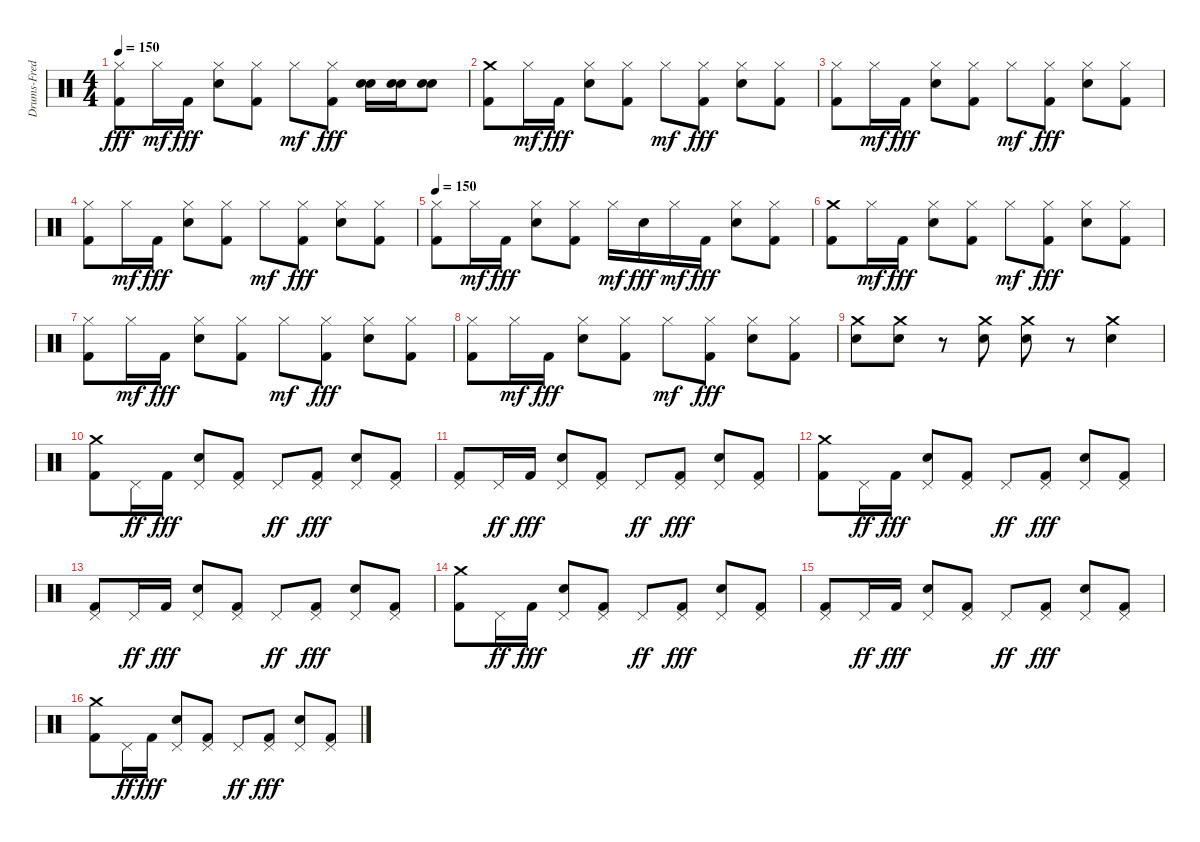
\track ("Drums-Fred" "Drums-Fred") {instrument percussion}
\staff {score}
\articulation defaults
\ts (4 4)
\tempo 150
\clef neutral
\ks c
("Hi-Hat (closed)" "Kick (hit) 2").8{dy fff} "Hi-Hat (closed)".16{dy mf} "Kick (hit) 2".16{dy fff} ("Hi-Hat (closed)" "Snare (hit) 2").8 ("Hi-Hat (closed)" "Kick (hit) 2").8 "Hi-Hat (closed)".8{dy mf} ("Hi-Hat (closed)" "Kick (hit) 2").8{dy fff} ("Snare (hit) 2" "Snare (hit) 2").16 ("Snare (hit) 2" "Snare (hit) 2").16 ("Snare (hit) 2" "Snare (hit) 2").8 |
("Crash medium (hit)" "Kick (hit) 2").8 "Hi-Hat (closed)".16{dy mf} "Kick (hit) 2".16{dy fff} ("Hi-Hat (closed)" "Snare (hit) 2").8 ("Hi-Hat (closed)" "Kick (hit) 2").8 "Hi-Hat (closed)".8{dy mf} ("Hi-Hat (closed)" "Kick (hit) 2").8{dy fff} ("Hi-Hat (closed)" "Snare (hit) 2").8 ("Hi-Hat (closed)" "Kick (hit) 2").8 |
("Hi-Hat (closed)" "Kick (hit) 2").8 "Hi-Hat (closed)".16{dy mf} "Kick (hit) 2".16{dy fff} ("Hi-Hat (closed)" "Snare (hit) 2").8 ("Hi-Hat (closed)" "Kick (hit) 2").8 "Hi-Hat (closed)".8{dy mf} ("Hi-Hat (closed)" "Kick (hit) 2").8{dy fff} ("Hi-Hat (closed)" "Snare (hit) 2").8 ("Hi-Hat (closed)" "Kick (hit) 2").8 |
("Hi-Hat (closed)" "Kick (hit) 2").8 "Hi-Hat (closed)".16{dy mf} "Kick (hit) 2".16{dy fff} ("Hi-Hat (closed)" "Snare (hit) 2").8 ("Hi-Hat (closed)" "Kick (hit) 2").8 "Hi-Hat (closed)".8{dy mf} ("Hi-Hat (closed)" "Kick (hit) 2").8{dy fff} ("Hi-Hat (closed)" "Snare (hit) 2").8 ("Hi-Hat (closed)" "Kick (hit) 2").8 |
\tempo 150
("Hi-Hat (closed)" "Kick (hit) 2").8 "Hi-Hat (closed)".16{dy mf} "Kick (hit) 2".16{dy fff} ("Hi-Hat (closed)" "Snare (hit) 2").8 ("Hi-Hat (closed)" "Kick (hit) 2").8 "Hi-Hat (closed)".16{dy mf} "Snare (hit) 2".16{dy fff} "Hi-Hat (closed)".16{dy mf} "Kick (hit) 2".16{dy fff} ("Hi-Hat (closed)" "Snare (hit) 2").8 ("Hi-Hat (closed)" "Kick (hit) 2").8 |
("Crash medium (hit)" "Kick (hit) 2").8 "Hi-Hat (closed)".16{dy mf} "Kick (hit) 2".16{dy fff} ("Hi-Hat (closed)" "Snare (hit) 2").8 ("Hi-Hat (closed)" "Kick (hit) 2").8 "Hi-Hat (closed)".8{dy mf} ("Hi-Hat (closed)" "Kick (hit) 2").8{dy fff} ("Hi-Hat (closed)" "Snare (hit) 2").8 ("Hi-Hat (closed)" "Kick (hit) 2").8 |
("Hi-Hat (closed)" "Kick (hit) 2").8 "Hi-Hat (closed)".16{dy mf} "Kick (hit) 2".16{dy fff} ("Hi-Hat (closed)" "Snare (hit) 2").8 ("Hi-Hat (closed)" "Kick (hit) 2").8 "Hi-Hat (closed)".8{dy mf} ("Hi-Hat (closed)" "Kick (hit) 2").8{dy fff} ("Hi-Hat (closed)" "Snare (hit) 2").8 ("Hi-Hat (closed)" "Kick (hit) 2").8 |
("Hi-Hat (closed)" "Kick (hit) 2").8 "Hi-Hat (closed)".16{dy mf} "Kick (hit) 2".16{dy fff} ("Hi-Hat (closed)" "Snare (hit) 2").8 ("Hi-Hat (closed)" "Kick (hit) 2").8 "Hi-Hat (closed)".8{dy mf} ("Hi-Hat (closed)" "Kick (hit) 2").8{dy fff} ("Hi-Hat (closed)" "Snare (hit) 2").8 ("Hi-Hat (closed)" "Kick (hit) 2").8 |
("Crash medium (hit)" "Snare (hit) 2").8 ("Crash medium (hit)" "Snare (hit) 2").8 r.8 ("Crash medium (hit)" "Snare (hit) 2").8 ("Crash medium (hit)" "Snare (hit) 2").8 r.8 ("Crash medium (hit)" "Snare (hit) 2").4 |
("Crash medium (hit)" "Kick (hit) 2").8 "Pedal Hi-Hat (hit)".16{dy ff} "Kick (hit) 2".16{dy fff} ("Pedal Hi-Hat (hit)" "Snare (hit) 2").8 ("Pedal Hi-Hat (hit)" "Kick (hit) 2").8 "Pedal Hi-Hat (hit)".8{dy ff} ("Pedal Hi-Hat (hit)" "Kick (hit) 2").8{dy fff} ("Pedal Hi-Hat (hit)" "Snare (hit) 2").8 ("Pedal Hi-Hat (hit)" "Kick (hit) 2").8 |
("Pedal Hi-Hat (hit)" "Kick (hit) 2").8 "Pedal Hi-Hat (hit)".16{dy ff} "Kick (hit) 2".16{dy fff} ("Pedal Hi-Hat (hit)" "Snare (hit) 2").8 ("Pedal Hi-Hat (hit)" "Kick (hit) 2").8 "Pedal Hi-Hat (hit)".8{dy ff} ("Pedal Hi-Hat (hit)" "Kick (hit) 2").8{dy fff} ("Pedal Hi-Hat (hit)" "Snare (hit) 2").8 ("Pedal Hi-Hat (hit)" "Kick (hit) 2").8 |
("Crash medium (hit)" "Kick (hit) 2").8 "Pedal Hi-Hat (hit)".16{dy ff} "Kick (hit) 2".16{dy fff} ("Pedal Hi-Hat (hit)" "Snare (hit) 2").8 ("Pedal Hi-Hat (hit)" "Kick (hit) 2").8 "Pedal Hi-Hat (hit)".8{dy ff} ("Pedal Hi-Hat (hit)" "Kick (hit) 2").8{dy fff} ("Pedal Hi-Hat (hit)" "Snare (hit) 2").8 ("Pedal Hi-Hat (hit)" "Kick (hit) 2").8 |
("Pedal Hi-Hat (hit)" "Kick (hit) 2").8 "Pedal Hi-Hat (hit)".16{dy ff} "Kick (hit) 2".16{dy fff} ("Pedal Hi-Hat (hit)" "Snare (hit) 2").8 ("Pedal Hi-Hat (hit)" "Kick (hit) 2").8 "Pedal Hi-Hat (hit)".8{dy ff} ("Pedal Hi-Hat (hit)" "Kick (hit) 2").8{dy fff} ("Pedal Hi-Hat (hit)" "Snare (hit) 2").8 ("Pedal Hi-Hat (hit)" "Kick (hit) 2").8 |
("Crash medium (hit)" "Kick (hit) 2").8 "Pedal Hi-Hat (hit)".16{dy ff} "Kick (hit) 2".16{dy fff} ("Pedal Hi-Hat (hit)" "Snare (hit) 2").8 ("Pedal Hi-Hat (hit)" "Kick (hit) 2").8 "Pedal Hi-Hat (hit)".8{dy ff} ("Pedal Hi-Hat (hit)" "Kick (hit) 2").8{dy fff} ("Pedal Hi-Hat (hit)" "Snare (hit) 2").8 ("Pedal Hi-Hat (hit)" "Kick (hit) 2").8 |
("Pedal Hi-Hat (hit)" "Kick (hit) 2").8 "Pedal Hi-Hat (hit)".16{dy ff} "Kick (hit) 2".16{dy fff} ("Pedal Hi-Hat (hit)" "Snare (hit) 2").8 ("Pedal Hi-Hat (hit)" "Kick (hit) 2").8 "Pedal Hi-Hat (hit)".8{dy ff} ("Pedal Hi-Hat (hit)" "Kick (hit) 2").8{dy fff} ("Pedal Hi-Hat (hit)" "Snare (hit) 2").8 ("Pedal Hi-Hat (hit)" "Kick (hit) 2").8 |
("Crash medium (hit)" "Kick (hit) 2").8 "Pedal Hi-Hat (hit)".16{dy ff} "Kick (hit) 2".16{dy fff} ("Pedal Hi-Hat (hit)" "Snare (hit) 2").8 ("Pedal Hi-Hat (hit)" "Kick (hit) 2").8 "Pedal Hi-Hat (hit)".8{dy ff} ("Pedal Hi-Hat (hit)" "Kick (hit) 2").8{dy fff} ("Pedal Hi-Hat (hit)" "Snare (hit) 2").8 ("Pedal Hi-Hat (hit)" "Kick (hit) 2").8
